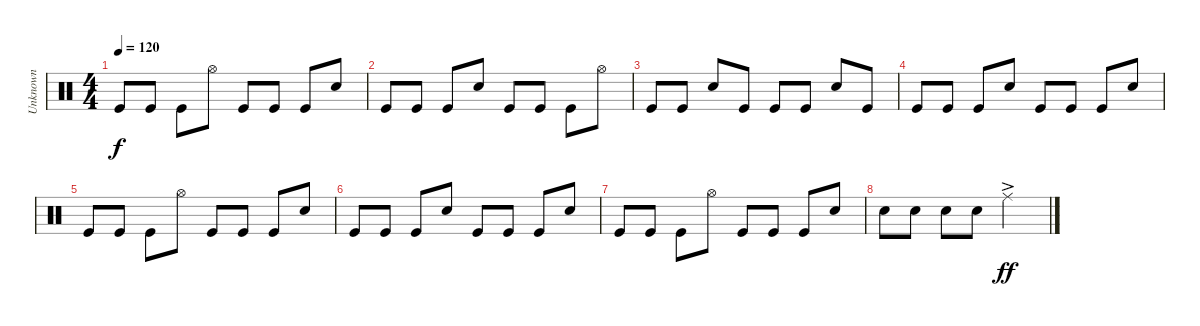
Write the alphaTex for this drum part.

\track ("Unknown" "Unknown") {instrument percussion}
\staff {score}
\articulation defaults
\ts (4 4)
\tempo 120
\clef neutral
\ks c "Kick (hit)".8{dy f} "Kick (hit)".8 "Kick (hit)".8 "Hi-Hat (open)".8 "Kick (hit)".8 "Kick (hit)".8 "Kick (hit)".8 "Snare (hit) 2".8
|
"Kick (hit)".8 "Kick (hit)".8 "Kick (hit)".8 "Snare (hit) 2".8 "Kick (hit)".8 "Kick (hit)".8 "Kick (hit)".8 "Hi-Hat (open)".8 |
"Kick (hit)".8 "Kick (hit)".8 "Snare (hit) 2".8 "Kick (hit)".8 "Kick (hit)".8 "Kick (hit)".8 "Snare (hit) 2".8 "Kick (hit)".8 |
"Kick (hit)".8 "Kick (hit)".8 "Kick (hit)".8 "Snare (hit) 2".8 "Kick (hit)".8 "Kick (hit)".8 "Kick (hit)".8 "Snare (hit) 2".8 |
"Kick (hit)".8 "Kick (hit)".8 "Kick (hit)".8 "Hi-Hat (open)".8 "Kick (hit)".8 "Kick (hit)".8 "Kick (hit)".8 "Snare (hit) 2".8 |
"Kick (hit)".8 "Kick (hit)".8 "Kick (hit)".8 "Snare (hit) 2".8 "Kick (hit)".8 "Kick (hit)".8 "Kick (hit)".8 "Snare (hit) 2".8 |
"Kick (hit)".8 "Kick (hit)".8 "Kick (hit)".8 "Hi-Hat (open)".8 "Kick (hit)".8 "Kick (hit)".8 "Kick (hit)".8 "Snare (hit) 2".8 |
"Snare (hit) 2".8 "Snare (hit) 2".8 "Snare (hit) 2".8 "Snare (hit) 2".8 "Ride (middle)"{ac}.2{dy ff}
